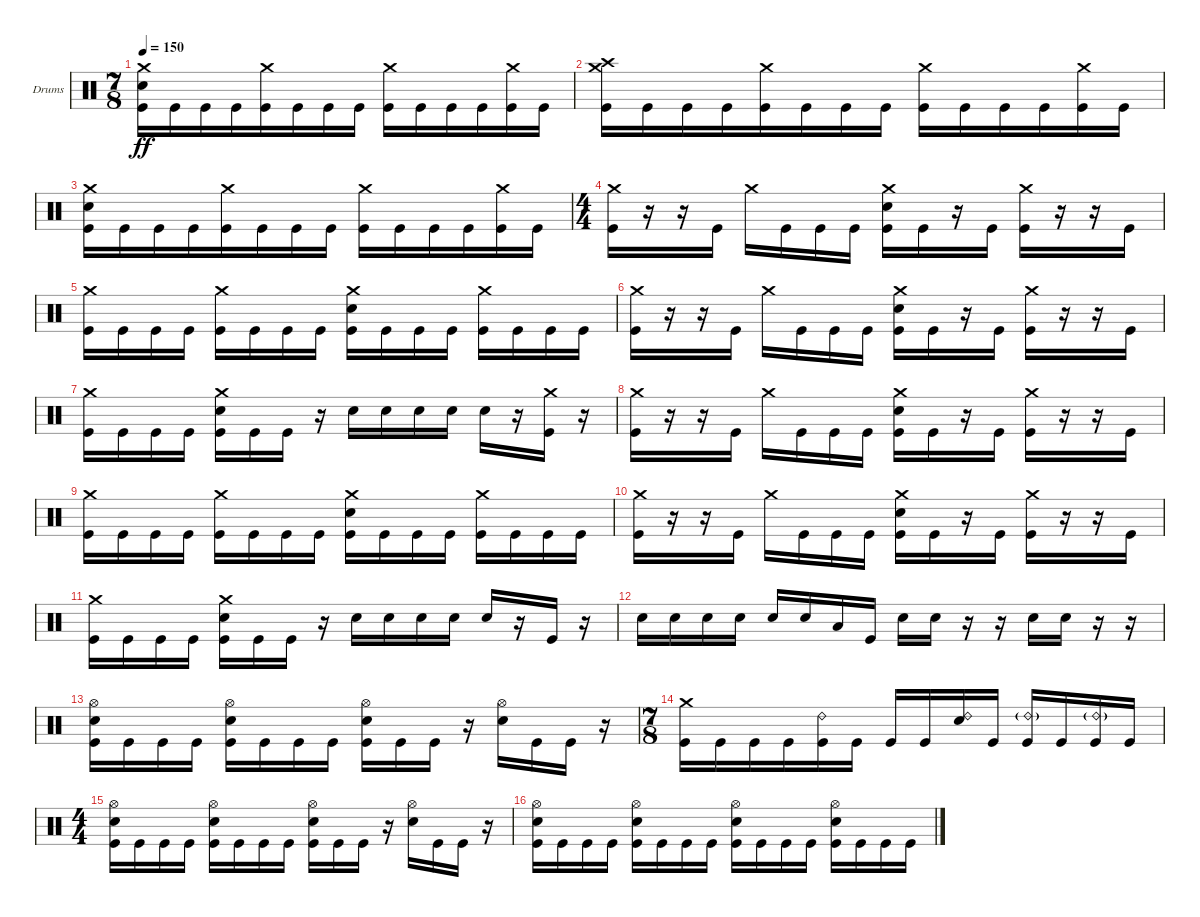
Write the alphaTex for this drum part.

\bracketExtendMode groupsimilarinstruments
\firstSystemTrackNameOrientation horizontal
\otherSystemsTrackNameOrientation horizontal
\track ("Drumkit" "Drums") {instrument percussion}
\staff {score}
\articulation defaults
\ts (7 8)
\tempo 150
\clef neutral
\ks c
("Crash medium (hit)" "Snare (hit) 2" "Kick (hit)").16{dy ff} "Kick (hit)".16 "Kick (hit)".16 "Kick (hit)".16 ("Crash medium (hit)" "Kick (hit)").16 "Kick (hit)".16 "Kick (hit)".16 "Kick (hit)".16 ("Crash medium (hit)" "Kick (hit)").16 "Kick (hit)".16 "Kick (hit)".16 "Kick (hit)".16 ("Crash medium (hit)" "Kick (hit)").16 "Kick (hit)".16 |
("Crash medium (hit)" "Crash high (hit)" "Kick (hit)").16 "Kick (hit)".16 "Kick (hit)".16 "Kick (hit)".16 ("Crash medium (hit)" "Kick (hit)").16 "Kick (hit)".16 "Kick (hit)".16 "Kick (hit)".16 ("Crash medium (hit)" "Kick (hit)").16 "Kick (hit)".16 "Kick (hit)".16 "Kick (hit)".16 ("Crash medium (hit)" "Kick (hit)").16 "Kick (hit)".16 |
("Crash medium (hit)" "Snare (hit) 2" "Kick (hit)").16 "Kick (hit)".16 "Kick (hit)".16 "Kick (hit)".16 ("Crash medium (hit)" "Kick (hit)").16 "Kick (hit)".16 "Kick (hit)".16 "Kick (hit)".16 ("Crash medium (hit)" "Kick (hit)").16 "Kick (hit)".16 "Kick (hit)".16 "Kick (hit)".16 ("Crash medium (hit)" "Kick (hit)").16 "Kick (hit)".16 |
\ts (4 4)
\beaming (8 2 2 2 2)
("Crash medium (hit)" "Kick (hit)").16 r.16 r.16 "Kick (hit)".16 "Crash medium (hit)".16 "Kick (hit)".16 "Kick (hit)".16 "Kick (hit)".16 ("Crash medium (hit)" "Snare (hit) 2" "Kick (hit)").16 "Kick (hit)".16 r.16 "Kick (hit)".16 ("Crash medium (hit)" "Kick (hit)").16 r.16 r.16 "Kick (hit)".16 |
("Crash medium (hit)" "Kick (hit)").16 "Kick (hit)".16 "Kick (hit)".16 "Kick (hit)".16 ("Crash medium (hit)" "Kick (hit)").16 "Kick (hit)".16 "Kick (hit)".16 "Kick (hit)".16 ("Crash medium (hit)" "Snare (hit) 2" "Kick (hit)").16 "Kick (hit)".16 "Kick (hit)".16 "Kick (hit)".16 ("Crash medium (hit)" "Kick (hit)").16 "Kick (hit)".16 "Kick (hit)".16 "Kick (hit)".16 |
("Crash medium (hit)" "Kick (hit)").16 r.16 r.16 "Kick (hit)".16 "Crash medium (hit)".16 "Kick (hit)".16 "Kick (hit)".16 "Kick (hit)".16 ("Crash medium (hit)" "Snare (hit) 2" "Kick (hit)").16 "Kick (hit)".16 r.16 "Kick (hit)".16 ("Crash medium (hit)" "Kick (hit)").16 r.16 r.16 "Kick (hit)".16 |
("Crash medium (hit)" "Kick (hit)").16 "Kick (hit)".16 "Kick (hit)".16 "Kick (hit)".16 ("Crash medium (hit)" "Snare (hit) 2" "Kick (hit)").16 "Kick (hit)".16 "Kick (hit)".16 r.16 "Snare (hit) 2".16 "Snare (hit) 2".16 "Snare (hit) 2".16 "Snare (hit) 2".16 "Snare (hit) 2".16 r.16 ("Crash medium (hit)" "Kick (hit)").16 r.16 |
("Crash medium (hit)" "Kick (hit)").16 r.16 r.16 "Kick (hit)".16 "Crash medium (hit)".16 "Kick (hit)".16 "Kick (hit)".16 "Kick (hit)".16 ("Crash medium (hit)" "Snare (hit) 2" "Kick (hit)").16 "Kick (hit)".16 r.16 "Kick (hit)".16 ("Crash medium (hit)" "Kick (hit)").16 r.16 r.16 "Kick (hit)".16 |
("Crash medium (hit)" "Kick (hit)").16 "Kick (hit)".16 "Kick (hit)".16 "Kick (hit)".16 ("Crash medium (hit)" "Kick (hit)").16 "Kick (hit)".16 "Kick (hit)".16 "Kick (hit)".16 ("Crash medium (hit)" "Snare (hit) 2" "Kick (hit)").16 "Kick (hit)".16 "Kick (hit)".16 "Kick (hit)".16 ("Crash medium (hit)" "Kick (hit)").16 "Kick (hit)".16 "Kick (hit)".16 "Kick (hit)".16 |
("Crash medium (hit)" "Kick (hit)").16 r.16 r.16 "Kick (hit)".16 "Crash medium (hit)".16 "Kick (hit)".16 "Kick (hit)".16 "Kick (hit)".16 ("Crash medium (hit)" "Snare (hit) 2" "Kick (hit)").16 "Kick (hit)".16 r.16 "Kick (hit)".16 ("Crash medium (hit)" "Kick (hit)").16 r.16 r.16 "Kick (hit)".16 |
("Crash medium (hit)" "Kick (hit)").16 "Kick (hit)".16 "Kick (hit)".16 "Kick (hit)".16 ("Crash medium (hit)" "Snare (hit) 2" "Kick (hit)").16 "Kick (hit)".16 "Kick (hit)".16 r.16 "Snare (hit) 2".16 "Snare (hit) 2".16 "Snare (hit) 2".16 "Snare (hit) 2".16 "Snare (hit) 2".16 r.16 "Kick (hit)".16 r.16 |
"Snare (hit) 2".16 "Snare (hit) 2".16 "Snare (hit) 2".16 "Snare (hit) 2".16 "Snare (hit) 2".16 "Snare (hit) 2".16 "Low Tom (hit)".16 "Kick (hit)".16 "Snare (hit) 2".16 "Snare (hit) 2".16 r.16 r.16 "Snare (hit) 2".16 "Snare (hit) 2".16 r.16 r.16 |
("Hi-Hat (open)" "Snare (hit) 2" "Kick (hit)").16 "Kick (hit)".16 "Kick (hit)".16 "Kick (hit)".16 ("Hi-Hat (open)" "Snare (hit) 2" "Kick (hit)").16 "Kick (hit)".16 "Kick (hit)".16 "Kick (hit)".16 ("Hi-Hat (open)" "Snare (hit) 2" "Kick (hit)").16 "Kick (hit)".16 "Kick (hit)".16 r.16 ("Hi-Hat (open)" "Snare (hit) 2").16 "Kick (hit)".16 "Kick (hit)".16 r.16 |
\ts (7 8)
\beaming (8 3 2 2)
("Crash medium (hit)" "Kick (hit)").16 "Kick (hit)".16 "Kick (hit)".16 "Kick (hit)".16 ("Ride (bell) 2" "Kick (hit)").16 "Kick (hit)".16 "Kick (hit)".16 "Kick (hit)".16 ("Ride (bell) 2" "Snare (hit) 2").16 "Kick (hit)".16 ("Ride (bell) 2"{g} "Kick (hit)").16 "Kick (hit)".16 ("Ride (bell) 2"{g} "Kick (hit)").16 "Kick (hit)".16 |
\ts (4 4)
\beaming (8 2 2 2 2)
("Hi-Hat (open)" "Snare (hit) 2" "Kick (hit)").16 "Kick (hit)".16 "Kick (hit)".16 "Kick (hit)".16 ("Hi-Hat (open)" "Snare (hit) 2" "Kick (hit)").16 "Kick (hit)".16 "Kick (hit)".16 "Kick (hit)".16 ("Hi-Hat (open)" "Snare (hit) 2" "Kick (hit)").16 "Kick (hit)".16 "Kick (hit)".16 r.16 ("Hi-Hat (open)" "Snare (hit) 2").16 "Kick (hit)".16 "Kick (hit)".16 r.16 |
("Hi-Hat (open)" "Snare (hit) 2" "Kick (hit)").16 "Kick (hit)".16 "Kick (hit)".16 "Kick (hit)".16 ("Hi-Hat (open)" "Snare (hit) 2" "Kick (hit)").16 "Kick (hit)".16 "Kick (hit)".16 "Kick (hit)".16 ("Hi-Hat (open)" "Snare (hit) 2" "Kick (hit)").16 "Kick (hit)".16 "Kick (hit)".16 "Kick (hit)".16 ("Hi-Hat (open)" "Snare (hit) 2" "Kick (hit)").16 "Kick (hit)".16 "Kick (hit)".16 "Kick (hit)".16
